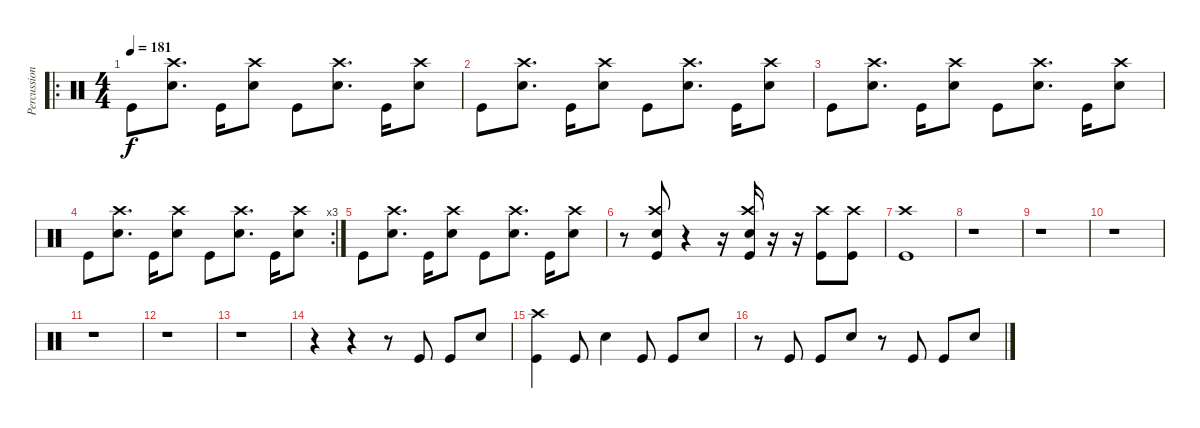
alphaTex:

\track ("Percussion" "Percussion") {instrument percussion}
\staff {score}
\articulation defaults
\ro
\ts (4 4)
\tempo 181
\clef neutral
\ks c "Kick (hit)".8{dy f}
("Crash high (hit)" "Electric Snare (hit)").8{d} "Kick (hit)".16 ("Crash high (hit)" "Electric Snare (hit)").8 "Kick (hit)".8 ("Crash high (hit)" "Electric Snare (hit)").8{d} "Kick (hit)".16 ("Crash high (hit)" "Electric Snare (hit)").8 |
"Kick (hit)".8 ("Crash high (hit)" "Electric Snare (hit)").8{d} "Kick (hit)".16 ("Crash high (hit)" "Electric Snare (hit)").8 "Kick (hit)".8 ("Crash high (hit)" "Electric Snare (hit)").8{d} "Kick (hit)".16 ("Crash high (hit)" "Electric Snare (hit)").8 |
"Kick (hit)".8 ("Crash high (hit)" "Electric Snare (hit)").8{d} "Kick (hit)".16 ("Crash high (hit)" "Electric Snare (hit)").8 "Kick (hit)".8 ("Crash high (hit)" "Electric Snare (hit)").8{d} "Kick (hit)".16 ("Crash high (hit)" "Electric Snare (hit)").8 |
\rc 3 "Kick (hit)".8
("Crash high (hit)" "Electric Snare (hit)").8{d} "Kick (hit)".16 ("Crash high (hit)" "Electric Snare (hit)").8 "Kick (hit)".8 ("Crash high (hit)" "Electric Snare (hit)").8{d} "Kick (hit)".16 ("Crash high (hit)" "Electric Snare (hit)").8 |
"Kick (hit)".8 ("Crash high (hit)" "Electric Snare (hit)").8{d} "Kick (hit)".16 ("Crash high (hit)" "Electric Snare (hit)").8 "Kick (hit)".8 ("Crash high (hit)" "Electric Snare (hit)").8{d} "Kick (hit)".16 ("Crash high (hit)" "Electric Snare (hit)").8 |
r.8 ("Crash high (hit)" "Electric Snare (hit)" "Kick (hit)").8 r.4 r.16 ("Crash high (hit)" "Electric Snare (hit)" "Kick (hit)").16 r.16 r.16 ("Crash high (hit)" "Kick (hit)").8 ("Crash high (hit)" "Kick (hit)").8 |
("Crash high (hit)" "Kick (hit)").1 |
r.1 |
r.1 |
r.1 |
r.1 |
r.1 |
r.1 |
r.4 r.4 r.8 "Kick (hit)".8 "Kick (hit)".8 "Electric Snare (hit)".8 |
("Crash high (hit)" "Kick (hit)").4 "Kick (hit)".8 "Electric Snare (hit)".4 "Kick (hit)".8 "Kick (hit)".8 "Electric Snare (hit)".8 |
r.8 "Kick (hit)".8 "Kick (hit)".8 "Electric Snare (hit)".8 r.8 "Kick (hit)".8 "Kick (hit)".8 "Electric Snare (hit)".8
